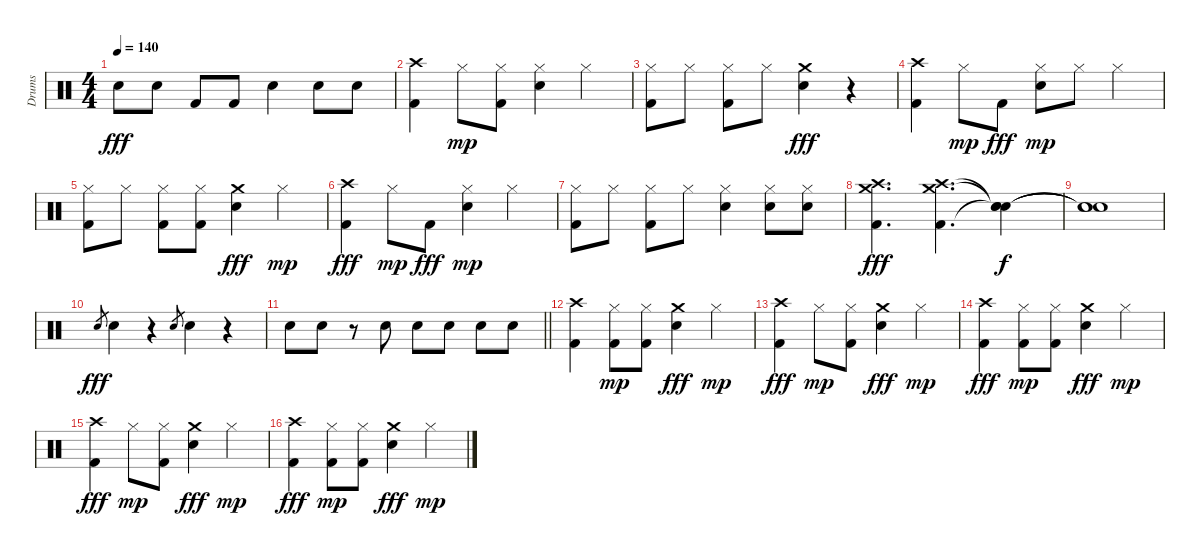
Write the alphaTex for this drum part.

\track ("Drums" "Drums") {instrument percussion}
\staff {score}
\articulation defaults
\ts (4 4)
\tempo 140
\clef neutral
\ks c "Electric Snare (hit)".8{dy fff} "Electric Snare (hit)".8 "Kick (hit) 2".8 "Kick (hit) 2".8 "Electric Snare (hit)".4 "Electric Snare (hit)".8 "Electric Snare (hit)".8
|
("Kick (hit) 2" "Crash high (hit)").4 "Hi-Hat (closed)".8{dy mp} ("Kick (hit) 2" "Hi-Hat (closed)").8 ("Electric Snare (hit)" "Hi-Hat (closed)").4 "Hi-Hat (closed)".4 |
("Kick (hit) 2" "Hi-Hat (closed)").8 "Hi-Hat (closed)".8 ("Kick (hit) 2" "Hi-Hat (closed)").8 "Hi-Hat (closed)".8 ("Electric Snare (hit)" "Crash medium (hit)").4{dy fff} r.4 |
("Kick (hit) 2" "Crash high (hit)").4 "Hi-Hat (closed)".8{dy mp} "Kick (hit) 2".8{dy fff} ("Electric Snare (hit)" "Hi-Hat (closed)").8{dy mp} "Hi-Hat (closed)".8 "Hi-Hat (closed)".4 |
("Kick (hit) 2" "Hi-Hat (closed)").8 "Hi-Hat (closed)".8 ("Kick (hit) 2" "Hi-Hat (closed)").8 ("Kick (hit) 2" "Hi-Hat (closed)").8 ("Electric Snare (hit)" "Crash medium (hit)").4{dy fff} "Hi-Hat (closed)".4{dy mp} |
("Kick (hit) 2" "Crash high (hit)").4{dy fff} "Hi-Hat (closed)".8{dy mp} "Kick (hit) 2".8{dy fff} ("Electric Snare (hit)" "Hi-Hat (closed)").4{dy mp} "Hi-Hat (closed)".4 |
("Kick (hit) 2" "Hi-Hat (closed)").8 "Hi-Hat (closed)".8 ("Kick (hit) 2" "Hi-Hat (closed)").8 "Hi-Hat (closed)".8 ("Electric Snare (hit)" "Hi-Hat (closed)").4 ("Electric Snare (hit)" "Hi-Hat (closed)").8 ("Electric Snare (hit)" "Hi-Hat (closed)").8 |
("Kick (hit) 2" "Crash high (hit)" "Crash medium (hit)").4{d dy fff} ("Kick (hit) 2" "Crash high (hit)" "Crash medium (hit)").4{d} ("Snare (hit)"{t} "Snare (hit)"{t} "Snare (hit)"{t}).4{dy f} |
("Snare (hit)"{t} "Snare (hit)"{t} "Snare (hit)"{t}).1 |
"Electric Snare (hit)".8{gr dy fff} "Electric Snare (hit)".4 r.4 "Electric Snare (hit)".8{gr} "Electric Snare (hit)".4 r.4 |
\barLineRight lightlight "Electric Snare (hit)".8 "Electric Snare (hit)".8
r.8 "Electric Snare (hit)".8 "Electric Snare (hit)".8 "Electric Snare (hit)".8 "Electric Snare (hit)".8 "Electric Snare (hit)".8 |
("Kick (hit) 2" "Crash high (hit)").4 ("Kick (hit) 2" "Hi-Hat (closed)").8{dy mp} ("Kick (hit) 2" "Hi-Hat (closed)").8 ("Electric Snare (hit)" "Crash medium (hit)").4{dy fff} "Hi-Hat (closed)".4{dy mp} |
("Kick (hit) 2" "Crash high (hit)").4{dy fff} "Hi-Hat (closed)".8{dy mp} ("Kick (hit) 2" "Hi-Hat (closed)").8 ("Electric Snare (hit)" "Crash medium (hit)").4{dy fff} "Hi-Hat (closed)".4{dy mp} |
("Kick (hit) 2" "Crash high (hit)").4{dy fff} ("Kick (hit) 2" "Hi-Hat (closed)").8{dy mp} ("Kick (hit) 2" "Hi-Hat (closed)").8 ("Electric Snare (hit)" "Crash medium (hit)").4{dy fff} "Hi-Hat (closed)".4{dy mp} |
("Kick (hit) 2" "Crash high (hit)").4{dy fff} "Hi-Hat (closed)".8{dy mp} ("Kick (hit) 2" "Hi-Hat (closed)").8 ("Electric Snare (hit)" "Crash medium (hit)").4{dy fff} "Hi-Hat (closed)".4{dy mp} |
("Kick (hit) 2" "Crash high (hit)").4{dy fff} ("Kick (hit) 2" "Hi-Hat (closed)").8{dy mp} ("Kick (hit) 2" "Hi-Hat (closed)").8 ("Electric Snare (hit)" "Crash medium (hit)").4{dy fff} "Hi-Hat (closed)".4{dy mp}
